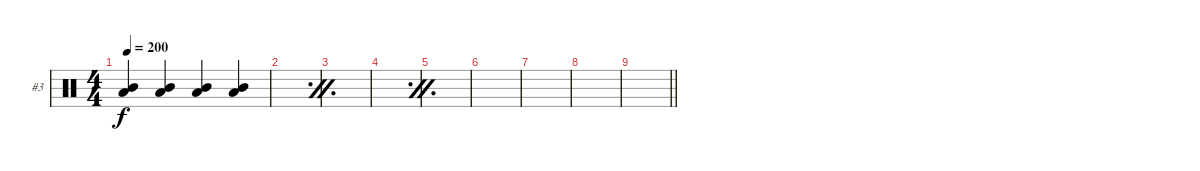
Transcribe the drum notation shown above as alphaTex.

\bracketExtendMode groupsimilarinstruments
\firstSystemTrackNameOrientation horizontal
\otherSystemsTrackNameOrientation horizontal
\track ("Chris Fehn" "#3") {instrument percussion}
\staff {score}
\articulation defaults
\ts (4 4)
\tempo 200
\clef neutral
\ks c
("Low Tom (hit)" "Mid Tom (hit)").4{dy f} ("Low Tom (hit)" "Mid Tom (hit)").4 ("Low Tom (hit)" "Mid Tom (hit)").4 ("Low Tom (hit)" "Mid Tom (hit)").4 |
\simile firstofdouble
|
\simile secondofdouble
|
\simile firstofdouble
|
\simile secondofdouble
|
\simile none
|
|
|
\barLineRight lightlight
